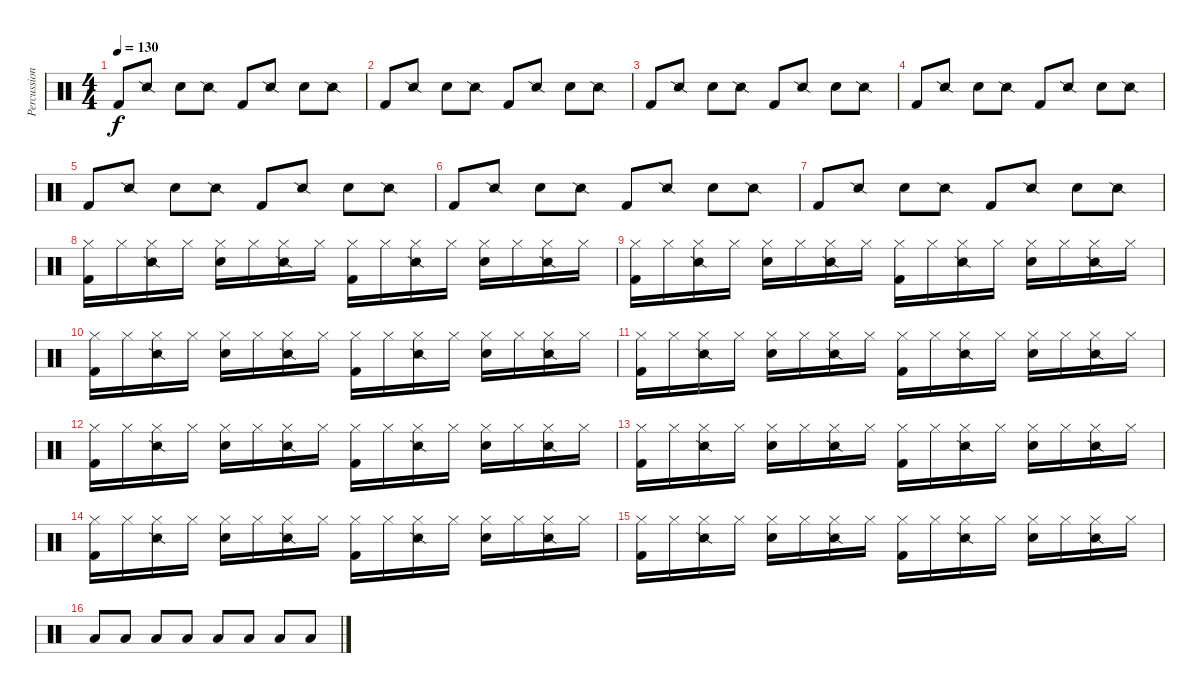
\track ("Percussion" "Percussion") {instrument percussion}
\staff {score}
\articulation defaults
\ts (4 4)
\tempo 130
\clef neutral
\ks c "Kick (hit) 2".8{dy f} "Snare (side stick) 2".8 "Snare (hit) 2".8 "Snare (side stick) 2".8 "Kick (hit) 2".8 "Snare (side stick) 2".8 "Snare (hit) 2".8 "Snare (side stick) 2".8
|
"Kick (hit) 2".8 "Snare (side stick) 2".8 "Snare (hit) 2".8 "Snare (side stick) 2".8 "Kick (hit) 2".8 "Snare (side stick) 2".8 "Snare (hit) 2".8 "Snare (side stick) 2".8 |
"Kick (hit) 2".8 "Snare (side stick) 2".8 "Snare (hit) 2".8 "Snare (side stick) 2".8 "Kick (hit) 2".8 "Snare (side stick) 2".8 "Snare (hit) 2".8 "Snare (side stick) 2".8 |
"Kick (hit) 2".8 "Snare (side stick) 2".8 "Snare (hit) 2".8 "Snare (side stick) 2".8 "Kick (hit) 2".8 "Snare (side stick) 2".8 "Snare (hit) 2".8 "Snare (side stick) 2".8 |
"Kick (hit) 2".8 "Snare (side stick) 2".8 "Snare (hit) 2".8 "Snare (side stick) 2".8 "Kick (hit) 2".8 "Snare (side stick) 2".8 "Snare (hit) 2".8 "Snare (side stick) 2".8 |
"Kick (hit) 2".8 "Snare (side stick) 2".8 "Snare (hit) 2".8 "Snare (side stick) 2".8 "Kick (hit) 2".8 "Snare (side stick) 2".8 "Snare (hit) 2".8 "Snare (side stick) 2".8 |
"Kick (hit) 2".8 "Snare (side stick) 2".8 "Snare (hit) 2".8 "Snare (side stick) 2".8 "Kick (hit) 2".8 "Snare (side stick) 2".8 "Snare (hit) 2".8 "Snare (side stick) 2".8 |
("Hi-Hat (closed)" "Kick (hit) 2").16 "Hi-Hat (closed)".16 ("Hi-Hat (closed)" "Snare (side stick) 2").16 "Hi-Hat (closed)".16 ("Hi-Hat (closed)" "Snare (hit) 2").16 "Hi-Hat (closed)".16 ("Hi-Hat (closed)" "Snare (side stick) 2").16 "Hi-Hat (closed)".16 ("Hi-Hat (closed)" "Kick (hit) 2").16 "Hi-Hat (closed)".16 ("Hi-Hat (closed)" "Snare (side stick) 2").16 "Hi-Hat (closed)".16 ("Hi-Hat (closed)" "Snare (hit) 2").16 "Hi-Hat (closed)".16 ("Hi-Hat (closed)" "Snare (side stick) 2").16 "Hi-Hat (closed)".16 |
("Hi-Hat (closed)" "Kick (hit) 2").16 "Hi-Hat (closed)".16 ("Hi-Hat (closed)" "Snare (side stick) 2").16 "Hi-Hat (closed)".16 ("Hi-Hat (closed)" "Snare (hit) 2").16 "Hi-Hat (closed)".16 ("Hi-Hat (closed)" "Snare (side stick) 2").16 "Hi-Hat (closed)".16 ("Hi-Hat (closed)" "Kick (hit) 2").16 "Hi-Hat (closed)".16 ("Hi-Hat (closed)" "Snare (side stick) 2").16 "Hi-Hat (closed)".16 ("Hi-Hat (closed)" "Snare (hit) 2").16 "Hi-Hat (closed)".16 ("Hi-Hat (closed)" "Snare (side stick) 2").16 "Hi-Hat (closed)".16 |
("Hi-Hat (closed)" "Kick (hit) 2").16 "Hi-Hat (closed)".16 ("Hi-Hat (closed)" "Snare (side stick) 2").16 "Hi-Hat (closed)".16 ("Hi-Hat (closed)" "Snare (hit) 2").16 "Hi-Hat (closed)".16 ("Hi-Hat (closed)" "Snare (side stick) 2").16 "Hi-Hat (closed)".16 ("Hi-Hat (closed)" "Kick (hit) 2").16 "Hi-Hat (closed)".16 ("Hi-Hat (closed)" "Snare (side stick) 2").16 "Hi-Hat (closed)".16 ("Hi-Hat (closed)" "Snare (hit) 2").16 "Hi-Hat (closed)".16 ("Hi-Hat (closed)" "Snare (side stick) 2").16 "Hi-Hat (closed)".16 |
("Hi-Hat (closed)" "Kick (hit) 2").16 "Hi-Hat (closed)".16 ("Hi-Hat (closed)" "Snare (side stick) 2").16 "Hi-Hat (closed)".16 ("Hi-Hat (closed)" "Snare (hit) 2").16 "Hi-Hat (closed)".16 ("Hi-Hat (closed)" "Snare (side stick) 2").16 "Hi-Hat (closed)".16 ("Hi-Hat (closed)" "Kick (hit) 2").16 "Hi-Hat (closed)".16 ("Hi-Hat (closed)" "Snare (side stick) 2").16 "Hi-Hat (closed)".16 ("Hi-Hat (closed)" "Snare (hit) 2").16 "Hi-Hat (closed)".16 ("Hi-Hat (closed)" "Snare (side stick) 2").16 "Hi-Hat (closed)".16 |
("Hi-Hat (closed)" "Kick (hit) 2").16 "Hi-Hat (closed)".16 ("Hi-Hat (closed)" "Snare (side stick) 2").16 "Hi-Hat (closed)".16 ("Hi-Hat (closed)" "Snare (hit) 2").16 "Hi-Hat (closed)".16 ("Hi-Hat (closed)" "Snare (side stick) 2").16 "Hi-Hat (closed)".16 ("Hi-Hat (closed)" "Kick (hit) 2").16 "Hi-Hat (closed)".16 ("Hi-Hat (closed)" "Snare (side stick) 2").16 "Hi-Hat (closed)".16 ("Hi-Hat (closed)" "Snare (hit) 2").16 "Hi-Hat (closed)".16 ("Hi-Hat (closed)" "Snare (side stick) 2").16 "Hi-Hat (closed)".16 |
("Hi-Hat (closed)" "Kick (hit) 2").16 "Hi-Hat (closed)".16 ("Hi-Hat (closed)" "Snare (side stick) 2").16 "Hi-Hat (closed)".16 ("Hi-Hat (closed)" "Snare (hit) 2").16 "Hi-Hat (closed)".16 ("Hi-Hat (closed)" "Snare (side stick) 2").16 "Hi-Hat (closed)".16 ("Hi-Hat (closed)" "Kick (hit) 2").16 "Hi-Hat (closed)".16 ("Hi-Hat (closed)" "Snare (side stick) 2").16 "Hi-Hat (closed)".16 ("Hi-Hat (closed)" "Snare (hit) 2").16 "Hi-Hat (closed)".16 ("Hi-Hat (closed)" "Snare (side stick) 2").16 "Hi-Hat (closed)".16 |
("Hi-Hat (closed)" "Kick (hit) 2").16 "Hi-Hat (closed)".16 ("Hi-Hat (closed)" "Snare (side stick) 2").16 "Hi-Hat (closed)".16 ("Hi-Hat (closed)" "Snare (hit) 2").16 "Hi-Hat (closed)".16 ("Hi-Hat (closed)" "Snare (side stick) 2").16 "Hi-Hat (closed)".16 ("Hi-Hat (closed)" "Kick (hit) 2").16 "Hi-Hat (closed)".16 ("Hi-Hat (closed)" "Snare (side stick) 2").16 "Hi-Hat (closed)".16 ("Hi-Hat (closed)" "Snare (hit) 2").16 "Hi-Hat (closed)".16 ("Hi-Hat (closed)" "Snare (side stick) 2").16 "Hi-Hat (closed)".16 |
("Hi-Hat (closed)" "Kick (hit) 2").16 "Hi-Hat (closed)".16 ("Hi-Hat (closed)" "Snare (side stick) 2").16 "Hi-Hat (closed)".16 ("Hi-Hat (closed)" "Snare (hit) 2").16 "Hi-Hat (closed)".16 ("Hi-Hat (closed)" "Snare (side stick) 2").16 "Hi-Hat (closed)".16 ("Hi-Hat (closed)" "Kick (hit) 2").16 "Hi-Hat (closed)".16 ("Hi-Hat (closed)" "Snare (side stick) 2").16 "Hi-Hat (closed)".16 ("Hi-Hat (closed)" "Snare (hit) 2").16 "Hi-Hat (closed)".16 ("Hi-Hat (closed)" "Snare (side stick) 2").16 "Hi-Hat (closed)".16 |
"Low Tom (hit)".8 "Low Tom (hit)".8 "Low Floor Tom (hit)".8 "Low Tom (hit)".8 "Low Tom (hit)".8 "Low Tom (hit)".8 "Low Floor Tom (hit)".8 "Low Tom (hit)".8
